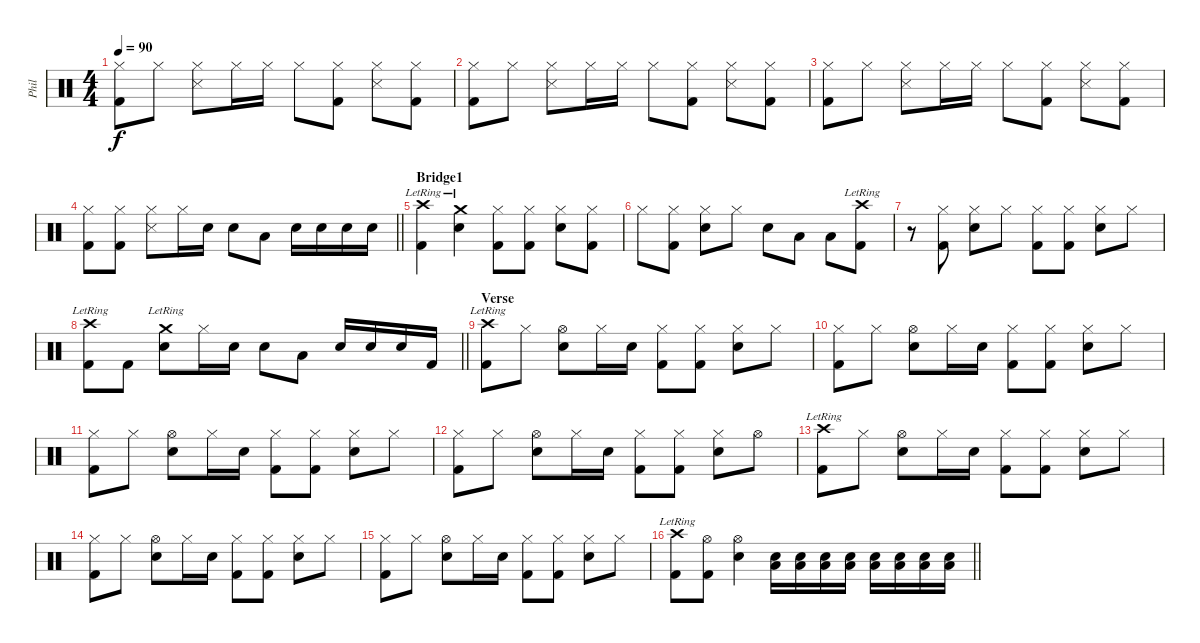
\track ("Phil" "Phil") {instrument percussion}
\staff {score}
\articulation defaults
\ts (4 4)
\tempo 90
\clef neutral
\ks c
("Kick (hit) 2" "Hi-Hat (closed)").8{dy f} "Hi-Hat (closed)".8 ("Snare (side stick) 3" "Hi-Hat (closed)").8 "Hi-Hat (closed)".16 "Hi-Hat (closed)".16 "Hi-Hat (closed)".8 ("Kick (hit) 2" "Hi-Hat (closed)").8 ("Snare (side stick) 3" "Hi-Hat (closed)").8 ("Kick (hit) 2" "Hi-Hat (closed)").8 |
("Kick (hit) 2" "Hi-Hat (closed)").8 "Hi-Hat (closed)".8 ("Snare (side stick) 3" "Hi-Hat (closed)").8 "Hi-Hat (closed)".16 "Hi-Hat (closed)".16 "Hi-Hat (closed)".8 ("Kick (hit) 2" "Hi-Hat (closed)").8 ("Snare (side stick) 3" "Hi-Hat (closed)").8 ("Kick (hit) 2" "Hi-Hat (closed)").8 |
("Kick (hit) 2" "Hi-Hat (closed)").8 "Hi-Hat (closed)".8 ("Snare (side stick) 3" "Hi-Hat (closed)").8 "Hi-Hat (closed)".16 "Hi-Hat (closed)".16 "Hi-Hat (closed)".8 ("Kick (hit) 2" "Hi-Hat (closed)").8 ("Snare (side stick) 3" "Hi-Hat (closed)").8 ("Kick (hit) 2" "Hi-Hat (closed)").8 |
\barLineRight lightlight
("Kick (hit) 2" "Hi-Hat (closed)").8 ("Kick (hit) 2" "Hi-Hat (closed)").8 ("Snare (side stick) 3" "Hi-Hat (closed)").8 "Hi-Hat (closed)".16 "Snare (hit) 2".16 "Snare (hit) 2".8 "Low Floor Tom (hit)".8 "Snare (hit) 2".16 "Snare (hit) 2".16 "Snare (hit) 2".16 "Snare (hit) 2".16 |
\section ("" "Bridge1")
("Kick (hit) 2" "Crash high (hit)"{lr}).4 ("Snare (hit) 2" "Crash medium (hit)"{lr}).4 ("Kick (hit) 2" "Hi-Hat (closed)").8 ("Kick (hit) 2" "Hi-Hat (closed)").8 ("Snare (hit) 2" "Hi-Hat (closed)").8 ("Kick (hit) 2" "Hi-Hat (closed)").8 |
"Hi-Hat (closed)".8 ("Kick (hit) 2" "Hi-Hat (closed)").8 ("Snare (hit) 2" "Hi-Hat (closed)").8 "Hi-Hat (closed)".8 "Snare (hit) 2".8 "Low Floor Tom (hit)".8 "Low Floor Tom (hit)".8 ("Kick (hit) 2" "Crash high (hit)"{lr}).8 |
r.8 ("Kick (hit) 2" "Hi-Hat (closed)").8 ("Snare (hit) 2" "Hi-Hat (closed)").8 "Hi-Hat (closed)".8 ("Kick (hit) 2" "Hi-Hat (closed)").8 ("Kick (hit) 2" "Hi-Hat (closed)").8 ("Snare (hit) 2" "Hi-Hat (closed)").8 "Hi-Hat (closed)".8 |
\barLineRight lightlight
("Kick (hit) 2" "Crash high (hit)"{lr}).8 "Kick (hit) 2".8 ("Snare (hit) 2" "Crash medium (hit)"{lr}).8 "Hi-Hat (closed)".16 "Snare (hit) 2".16 "Snare (hit) 2".8 "Low Floor Tom (hit)".8 "Snare (hit) 2".16 "Snare (hit) 2".16 "Snare (hit) 2".16 "Kick (hit) 2".16 |
\section ("" "Verse")
("Kick (hit) 2" "Crash high (hit)"{lr}).8 "Hi-Hat (closed)".8 ("Snare (hit) 2" "Hi-Hat (open)").8 "Hi-Hat (closed)".16 "Snare (hit) 2".16 ("Kick (hit) 2" "Hi-Hat (closed)").8 ("Kick (hit) 2" "Hi-Hat (closed)").8 ("Snare (hit) 2" "Hi-Hat (closed)").8 "Hi-Hat (closed)".8 |
("Kick (hit) 2" "Hi-Hat (closed)").8 "Hi-Hat (closed)".8 ("Snare (hit) 2" "Hi-Hat (open)").8 "Hi-Hat (closed)".16 "Snare (hit) 2".16 ("Kick (hit) 2" "Hi-Hat (closed)").8 ("Kick (hit) 2" "Hi-Hat (closed)").8 ("Snare (hit) 2" "Hi-Hat (closed)").8 "Hi-Hat (closed)".8 |
("Kick (hit) 2" "Hi-Hat (closed)").8 "Hi-Hat (closed)".8 ("Snare (hit) 2" "Hi-Hat (open)").8 "Hi-Hat (closed)".16 "Snare (hit) 2".16 ("Kick (hit) 2" "Hi-Hat (closed)").8 ("Kick (hit) 2" "Hi-Hat (closed)").8 ("Snare (hit) 2" "Hi-Hat (closed)").8 "Hi-Hat (closed)".8 |
("Kick (hit) 2" "Hi-Hat (closed)").8 "Hi-Hat (closed)".8 ("Snare (hit) 2" "Hi-Hat (open)").8 "Hi-Hat (closed)".16 "Snare (hit) 2".16 ("Kick (hit) 2" "Hi-Hat (closed)").8 ("Kick (hit) 2" "Hi-Hat (closed)").8 ("Snare (hit) 2" "Hi-Hat (closed)").8 "Hi-Hat (open)".8 |
("Kick (hit) 2" "Crash high (hit)"{lr}).8 "Hi-Hat (closed)".8 ("Snare (hit) 2" "Hi-Hat (open)").8 "Hi-Hat (closed)".16 "Snare (hit) 2".16 ("Kick (hit) 2" "Hi-Hat (closed)").8 ("Kick (hit) 2" "Hi-Hat (closed)").8 ("Snare (hit) 2" "Hi-Hat (closed)").8 "Hi-Hat (closed)".8 |
("Kick (hit) 2" "Hi-Hat (closed)").8 "Hi-Hat (closed)".8 ("Snare (hit) 2" "Hi-Hat (open)").8 "Hi-Hat (closed)".16 "Snare (hit) 2".16 ("Kick (hit) 2" "Hi-Hat (closed)").8 ("Kick (hit) 2" "Hi-Hat (closed)").8 ("Snare (hit) 2" "Hi-Hat (closed)").8 "Hi-Hat (closed)".8 |
("Kick (hit) 2" "Hi-Hat (closed)").8 "Hi-Hat (closed)".8 ("Snare (hit) 2" "Hi-Hat (open)").8 "Hi-Hat (closed)".16 "Snare (hit) 2".16 ("Kick (hit) 2" "Hi-Hat (closed)").8 ("Kick (hit) 2" "Hi-Hat (closed)").8 ("Snare (hit) 2" "Hi-Hat (closed)").8 "Hi-Hat (closed)".8 |
\barLineRight lightlight
("Kick (hit) 2" "Crash high (hit)"{lr}).8 ("Kick (hit) 2" "Hi-Hat (open)").8 ("Snare (hit) 2" "Hi-Hat (open)").4 ("Snare (hit) 2" "Low Floor Tom (hit)").16 ("Snare (hit) 2" "Low Floor Tom (hit)").16 ("Snare (hit) 2" "Low Floor Tom (hit)").16 ("Snare (hit) 2" "Low Floor Tom (hit)").16 ("Snare (hit) 2" "Low Floor Tom (hit)").16 ("Snare (hit) 2" "Low Floor Tom (hit)").16 ("Snare (hit) 2" "Low Floor Tom (hit)").16 ("Snare (hit) 2" "Low Floor Tom (hit)").16
